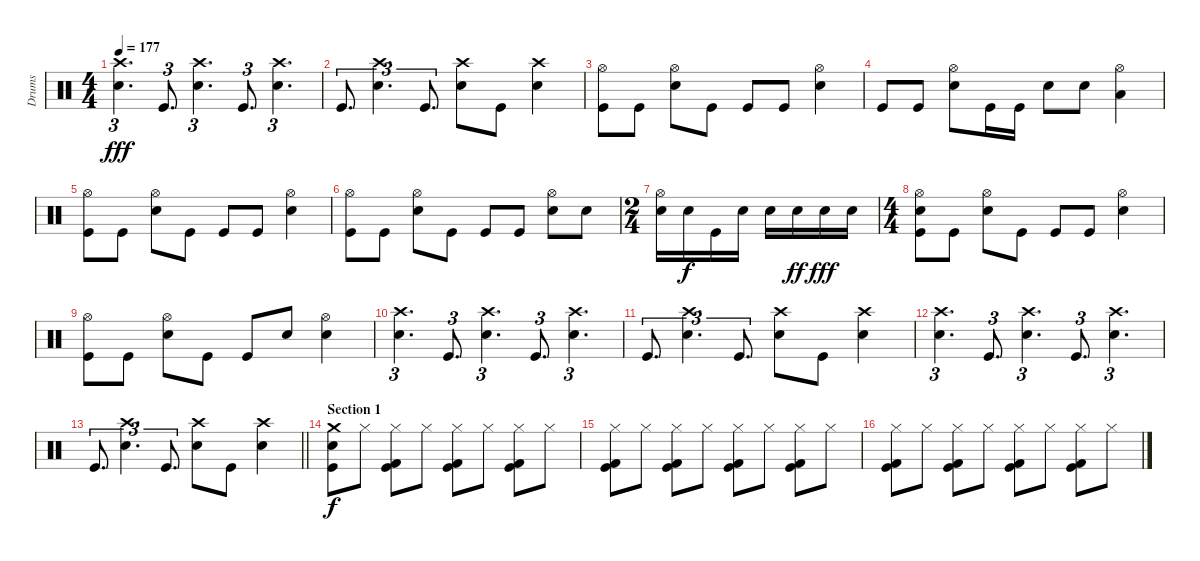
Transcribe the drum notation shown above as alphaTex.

\track ("Drums" "Drums") {instrument percussion}
\staff {score}
\articulation defaults
\ts (4 4)
\tempo 177
\clef neutral
\ks c
("Crash high (hit)" "Snare (hit) 2").4{d tu (3 2) dy fff} "Kick (hit)".8{d tu (3 2)} ("Crash high (hit)" "Snare (hit) 2").4{d tu (3 2)} "Kick (hit)".8{d tu (3 2)} ("Crash high (hit)" "Snare (hit) 2").4{d tu (3 2)} |
"Kick (hit)".8{d tu (3 2)} ("Crash high (hit)" "Snare (hit) 2").4{d tu (3 2)} "Kick (hit)".8{d tu (3 2)} ("Crash high (hit)" "Snare (hit) 2").8 "Kick (hit)".8 ("Crash high (hit)" "Snare (hit) 2").4 |
("Hi-Hat (open)" "Kick (hit)").8 "Kick (hit)".8 ("Hi-Hat (open)" "Snare (hit) 2").8 "Kick (hit)".8 "Kick (hit)".8 "Kick (hit)".8 ("Hi-Hat (open)" "Snare (hit) 2").4 |
"Kick (hit)".8 "Kick (hit)".8 ("Hi-Hat (open)" "Snare (hit) 2").8 "Kick (hit)".16 "Kick (hit)".16 "Snare (hit) 2".8 "Snare (hit) 2".8 ("Low Tom (hit)" "Hi-Hat (open)").4 |
("Hi-Hat (open)" "Kick (hit)").8 "Kick (hit)".8 ("Hi-Hat (open)" "Snare (hit) 2").8 "Kick (hit)".8 "Kick (hit)".8 "Kick (hit)".8 ("Hi-Hat (open)" "Snare (hit) 2").4 |
("Hi-Hat (open)" "Kick (hit)").8 "Kick (hit)".8 ("Hi-Hat (open)" "Snare (hit) 2").8 "Kick (hit)".8 "Kick (hit)".8 "Kick (hit)".8 ("Hi-Hat (open)" "Snare (hit) 2").8 "Snare (hit) 2".8 |
\ts (2 4)
("Hi-Hat (open)" "Snare (hit) 2").16 "Snare (hit) 2".16{dy f} "Kick (hit)".16 "Snare (hit) 2".16 "Snare (hit) 2".16 "Snare (hit) 2".16{dy ff} "Snare (hit) 2".16{dy fff} "Snare (hit) 2".16 |
\ts (4 4)
("Hi-Hat (open)" "Snare (hit) 2" "Kick (hit)").8 "Kick (hit)".8 ("Hi-Hat (open)" "Snare (hit) 2").8 "Kick (hit)".8 "Kick (hit)".8 "Kick (hit)".8 ("Hi-Hat (open)" "Snare (hit) 2").4 |
("Hi-Hat (open)" "Kick (hit)").8 "Kick (hit)".8 ("Hi-Hat (open)" "Snare (hit) 2").8 "Kick (hit)".8 "Kick (hit)".8 "Snare (hit) 2".8 ("Hi-Hat (open)" "Snare (hit) 2").4 |
("Crash high (hit)" "Snare (hit) 2").4{d tu (3 2)} "Kick (hit)".8{d tu (3 2)} ("Crash high (hit)" "Snare (hit) 2").4{d tu (3 2)} "Kick (hit)".8{d tu (3 2)} ("Crash high (hit)" "Snare (hit) 2").4{d tu (3 2)} |
"Kick (hit)".8{d tu (3 2)} ("Crash high (hit)" "Snare (hit) 2").4{d tu (3 2)} "Kick (hit)".8{d tu (3 2)} ("Crash high (hit)" "Snare (hit) 2").8 "Kick (hit)".8 ("Crash high (hit)" "Snare (hit) 2").4 |
("Crash high (hit)" "Snare (hit) 2").4{d tu (3 2)} "Kick (hit)".8{d tu (3 2)} ("Crash high (hit)" "Snare (hit) 2").4{d tu (3 2)} "Kick (hit)".8{d tu (3 2)} ("Crash high (hit)" "Snare (hit) 2").4{d tu (3 2)} |
\barLineRight lightlight "Kick (hit)".8{d tu (3 2)}
("Crash high (hit)" "Snare (hit) 2").4{d tu (3 2)} "Kick (hit)".8{d tu (3 2)} ("Crash high (hit)" "Snare (hit) 2").8 "Kick (hit)".8 ("Crash high (hit)" "Snare (hit) 2").4 |
\section ("" "Section 1")
("Crash medium (hit)" "Snare (hit) 2" "Kick (hit)").8{dy f} "Hi-Hat (closed)".8 ("Hi-Hat (closed)" "Kick (hit) 2" "Kick (hit)").8 "Hi-Hat (closed)".8 ("Hi-Hat (closed)" "Kick (hit) 2" "Kick (hit)").8 "Hi-Hat (closed)".8 ("Hi-Hat (closed)" "Kick (hit) 2" "Kick (hit)").8 "Hi-Hat (closed)".8 |
("Hi-Hat (closed)" "Kick (hit) 2" "Kick (hit)").8 "Hi-Hat (closed)".8 ("Hi-Hat (closed)" "Kick (hit) 2" "Kick (hit)").8 "Hi-Hat (closed)".8 ("Hi-Hat (closed)" "Kick (hit) 2" "Kick (hit)").8 "Hi-Hat (closed)".8 ("Hi-Hat (closed)" "Kick (hit) 2" "Kick (hit)").8 "Hi-Hat (closed)".8 |
("Hi-Hat (closed)" "Kick (hit) 2" "Kick (hit)").8 "Hi-Hat (closed)".8 ("Hi-Hat (closed)" "Kick (hit) 2" "Kick (hit)").8 "Hi-Hat (closed)".8 ("Hi-Hat (closed)" "Kick (hit) 2" "Kick (hit)").8 "Hi-Hat (closed)".8 ("Hi-Hat (closed)" "Kick (hit) 2" "Kick (hit)").8 "Hi-Hat (closed)".8
